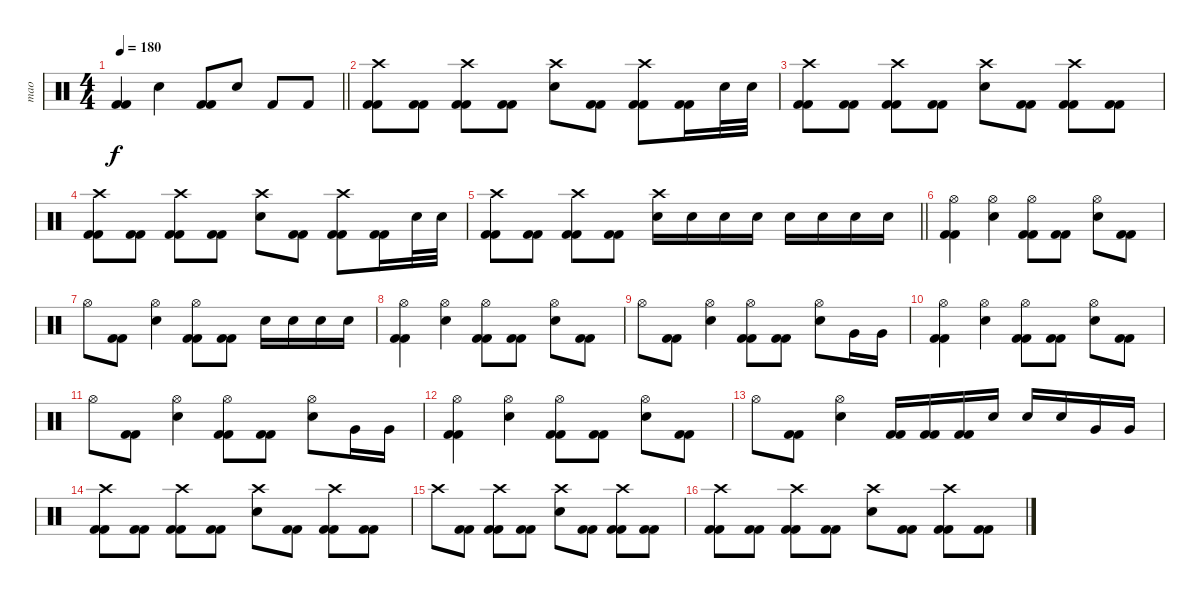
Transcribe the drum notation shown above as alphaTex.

\track ("mao" "mao") {instrument percussion}
\staff {score}
\articulation defaults
\ts (4 4)
\tempo 180
\clef neutral
\barLineRight lightlight
\ks c
("Kick (hit) 2" "Kick (hit) 2").4{dy f} "Electric Snare (hit)".4 ("Kick (hit) 2" "Kick (hit) 2").8 "Electric Snare (hit)".8 "Kick (hit) 2".8 "Kick (hit) 2".8 |
("Crash high (hit)" "Kick (hit) 2" "Kick (hit) 2").8 ("Kick (hit) 2" "Kick (hit) 2").8 ("Crash high (hit)" "Kick (hit) 2" "Kick (hit) 2").8 ("Kick (hit) 2" "Kick (hit) 2").8 ("Crash high (hit)" "Electric Snare (hit)").8 ("Kick (hit) 2" "Kick (hit) 2").8 ("Crash high (hit)" "Kick (hit) 2" "Kick (hit) 2").8 ("Kick (hit) 2" "Kick (hit) 2").16 "Electric Snare (hit)".32 "Electric Snare (hit)".32 |
("Crash high (hit)" "Kick (hit) 2" "Kick (hit) 2").8 ("Kick (hit) 2" "Kick (hit) 2").8 ("Crash high (hit)" "Kick (hit) 2" "Kick (hit) 2").8 ("Kick (hit) 2" "Kick (hit) 2").8 ("Crash high (hit)" "Electric Snare (hit)").8 ("Kick (hit) 2" "Kick (hit) 2").8 ("Crash high (hit)" "Kick (hit) 2" "Kick (hit) 2").8 ("Kick (hit) 2" "Kick (hit) 2").8 |
("Crash high (hit)" "Kick (hit) 2" "Kick (hit) 2").8 ("Kick (hit) 2" "Kick (hit) 2").8 ("Crash high (hit)" "Kick (hit) 2" "Kick (hit) 2").8 ("Kick (hit) 2" "Kick (hit) 2").8 ("Crash high (hit)" "Electric Snare (hit)").8 ("Kick (hit) 2" "Kick (hit) 2").8 ("Crash high (hit)" "Kick (hit) 2" "Kick (hit) 2").8 ("Kick (hit) 2" "Kick (hit) 2").16 "Electric Snare (hit)".32 "Electric Snare (hit)".32 |
\barLineRight lightlight
("Crash high (hit)" "Kick (hit) 2" "Kick (hit) 2").8 ("Kick (hit) 2" "Kick (hit) 2").8 ("Crash high (hit)" "Kick (hit) 2" "Kick (hit) 2").8 ("Kick (hit) 2" "Kick (hit) 2").8 ("Crash high (hit)" "Electric Snare (hit)").16 "Electric Snare (hit)".16 "Electric Snare (hit)".16 "Electric Snare (hit)".16 "Electric Snare (hit)".16 "Electric Snare (hit)".16 "Electric Snare (hit)".16 "Electric Snare (hit)".16 |
("Hi-Hat (open)" "Kick (hit) 2" "Kick (hit) 2").4 ("Hi-Hat (open)" "Electric Snare (hit)").4 ("Hi-Hat (open)" "Kick (hit) 2" "Kick (hit) 2").8 ("Kick (hit) 2" "Kick (hit) 2").8 ("Hi-Hat (open)" "Electric Snare (hit)").8 ("Kick (hit) 2" "Kick (hit) 2").8 |
"Hi-Hat (open)".8 ("Kick (hit) 2" "Kick (hit) 2").8 ("Hi-Hat (open)" "Electric Snare (hit)").4 ("Hi-Hat (open)" "Kick (hit) 2" "Kick (hit) 2").8 ("Kick (hit) 2" "Kick (hit) 2").8 "Electric Snare (hit)".16 "Electric Snare (hit)".16 "Electric Snare (hit)".16 "Electric Snare (hit)".16 |
("Hi-Hat (open)" "Kick (hit) 2" "Kick (hit) 2").4 ("Hi-Hat (open)" "Electric Snare (hit)").4 ("Hi-Hat (open)" "Kick (hit) 2" "Kick (hit) 2").8 ("Kick (hit) 2" "Kick (hit) 2").8 ("Hi-Hat (open)" "Electric Snare (hit)").8 ("Kick (hit) 2" "Kick (hit) 2").8 |
"Hi-Hat (open)".8 ("Kick (hit) 2" "Kick (hit) 2").8 ("Hi-Hat (open)" "Electric Snare (hit)").4 ("Hi-Hat (open)" "Kick (hit) 2" "Kick (hit) 2").8 ("Kick (hit) 2" "Kick (hit) 2").8 ("Hi-Hat (open)" "Electric Snare (hit)").8 "Very Low Tom (hit)".16 "Very Low Tom (hit)".16 |
("Hi-Hat (open)" "Kick (hit) 2" "Kick (hit) 2").4 ("Hi-Hat (open)" "Electric Snare (hit)").4 ("Hi-Hat (open)" "Kick (hit) 2" "Kick (hit) 2").8 ("Kick (hit) 2" "Kick (hit) 2").8 ("Hi-Hat (open)" "Electric Snare (hit)").8 ("Kick (hit) 2" "Kick (hit) 2").8 |
"Hi-Hat (open)".8 ("Kick (hit) 2" "Kick (hit) 2").8 ("Hi-Hat (open)" "Electric Snare (hit)").4 ("Hi-Hat (open)" "Kick (hit) 2" "Kick (hit) 2").8 ("Kick (hit) 2" "Kick (hit) 2").8 ("Hi-Hat (open)" "Electric Snare (hit)").8 "Very Low Tom (hit)".16 "Very Low Tom (hit)".16 |
("Hi-Hat (open)" "Kick (hit) 2" "Kick (hit) 2").4 ("Hi-Hat (open)" "Electric Snare (hit)").4 ("Hi-Hat (open)" "Kick (hit) 2" "Kick (hit) 2").8 ("Kick (hit) 2" "Kick (hit) 2").8 ("Hi-Hat (open)" "Electric Snare (hit)").8 ("Kick (hit) 2" "Kick (hit) 2").8 |
"Hi-Hat (open)".8 ("Kick (hit) 2" "Kick (hit) 2").8 ("Hi-Hat (open)" "Electric Snare (hit)").4 ("Kick (hit) 2" "Kick (hit) 2").16 ("Kick (hit) 2" "Kick (hit) 2").16 ("Kick (hit) 2" "Kick (hit) 2").16 "Electric Snare (hit)".16 "Electric Snare (hit)".16 "Electric Snare (hit)".16 "Very Low Tom (hit)".16 "Very Low Tom (hit)".16 |
("Crash high (hit)" "Kick (hit) 2" "Kick (hit) 2").8 ("Kick (hit) 2" "Kick (hit) 2").8 ("Crash high (hit)" "Kick (hit) 2" "Kick (hit) 2").8 ("Kick (hit) 2" "Kick (hit) 2").8 ("Crash high (hit)" "Electric Snare (hit)").8 ("Kick (hit) 2" "Kick (hit) 2").8 ("Crash high (hit)" "Kick (hit) 2" "Kick (hit) 2").8 ("Kick (hit) 2" "Kick (hit) 2").8 |
"Crash high (hit)".8 ("Kick (hit) 2" "Kick (hit) 2").8 ("Crash high (hit)" "Kick (hit) 2" "Kick (hit) 2").8 ("Kick (hit) 2" "Kick (hit) 2").8 ("Crash high (hit)" "Electric Snare (hit)").8 ("Kick (hit) 2" "Kick (hit) 2").8 ("Crash high (hit)" "Kick (hit) 2" "Kick (hit) 2").8 ("Kick (hit) 2" "Kick (hit) 2").8 |
("Crash high (hit)" "Kick (hit) 2" "Kick (hit) 2").8 ("Kick (hit) 2" "Kick (hit) 2").8 ("Crash high (hit)" "Kick (hit) 2" "Kick (hit) 2").8 ("Kick (hit) 2" "Kick (hit) 2").8 ("Crash high (hit)" "Electric Snare (hit)").8 ("Kick (hit) 2" "Kick (hit) 2").8 ("Crash high (hit)" "Kick (hit) 2" "Kick (hit) 2").8 ("Kick (hit) 2" "Kick (hit) 2").8
